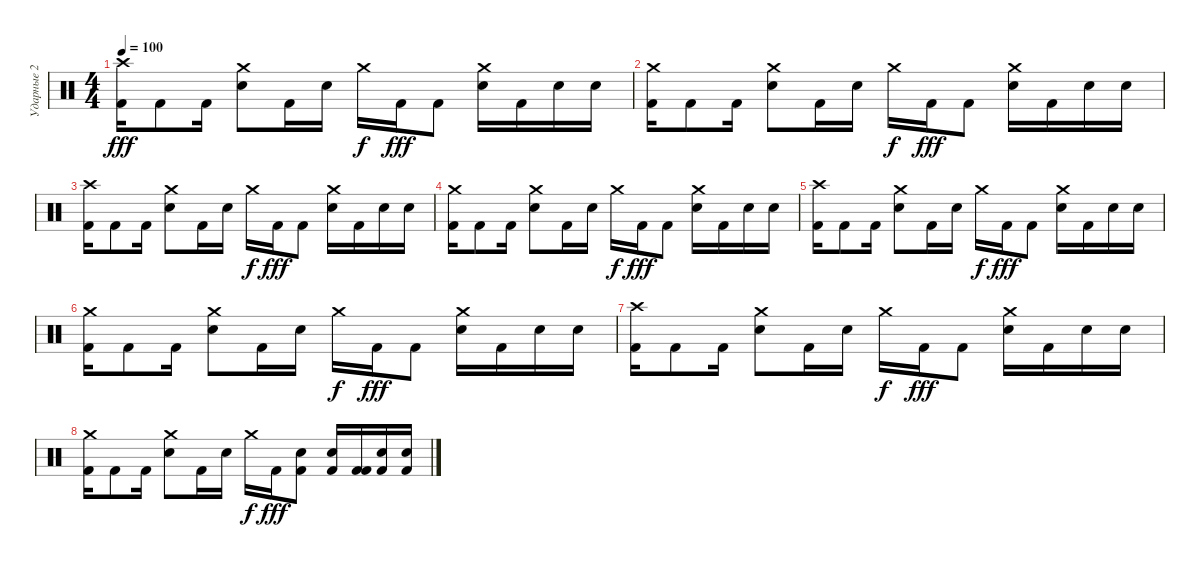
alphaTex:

\track ("Ударные 2" "Ударные 2") {instrument percussion}
\staff {score}
\articulation defaults
\ts (4 4)
\tempo 100
\clef neutral
\ks c
("Kick (hit) 2" "Crash high (hit)").16{dy fff} "Kick (hit) 2".8 "Kick (hit) 2".16 ("Snare (hit) 2" "Crash medium (hit)").8 "Kick (hit) 2".16 "Snare (hit) 2".16 "Crash medium (hit)".16{dy f} "Kick (hit) 2".16{dy fff} "Kick (hit) 2".8 ("Snare (hit) 2" "Crash medium (hit)").16 "Kick (hit) 2".16 "Snare (hit) 2".16 "Snare (hit) 2".16 |
("Kick (hit) 2" "Crash medium (hit)").16 "Kick (hit) 2".8 "Kick (hit) 2".16 ("Snare (hit) 2" "Crash medium (hit)").8 "Kick (hit) 2".16 "Snare (hit) 2".16 "Crash medium (hit)".16{dy f} "Kick (hit) 2".16{dy fff} "Kick (hit) 2".8 ("Snare (hit) 2" "Crash medium (hit)").16 "Kick (hit) 2".16 "Snare (hit) 2".16 "Snare (hit) 2".16 |
("Kick (hit) 2" "Crash high (hit)").16 "Kick (hit) 2".8 "Kick (hit) 2".16 ("Snare (hit) 2" "Crash medium (hit)").8 "Kick (hit) 2".16 "Snare (hit) 2".16 "Crash medium (hit)".16{dy f} "Kick (hit) 2".16{dy fff} "Kick (hit) 2".8 ("Snare (hit) 2" "Crash medium (hit)").16 "Kick (hit) 2".16 "Snare (hit) 2".16 "Snare (hit) 2".16 |
("Kick (hit) 2" "Crash medium (hit)").16 "Kick (hit) 2".8 "Kick (hit) 2".16 ("Snare (hit) 2" "Crash medium (hit)").8 "Kick (hit) 2".16 "Snare (hit) 2".16 "Crash medium (hit)".16{dy f} "Kick (hit) 2".16{dy fff} "Kick (hit) 2".8 ("Snare (hit) 2" "Crash medium (hit)").16 "Kick (hit) 2".16 "Snare (hit) 2".16 "Snare (hit) 2".16 |
("Kick (hit) 2" "Crash high (hit)").16 "Kick (hit) 2".8 "Kick (hit) 2".16 ("Snare (hit) 2" "Crash medium (hit)").8 "Kick (hit) 2".16 "Snare (hit) 2".16 "Crash medium (hit)".16{dy f} "Kick (hit) 2".16{dy fff} "Kick (hit) 2".8 ("Snare (hit) 2" "Crash medium (hit)").16 "Kick (hit) 2".16 "Snare (hit) 2".16 "Snare (hit) 2".16 |
("Kick (hit) 2" "Crash medium (hit)").16 "Kick (hit) 2".8 "Kick (hit) 2".16 ("Snare (hit) 2" "Crash medium (hit)").8 "Kick (hit) 2".16 "Snare (hit) 2".16 "Crash medium (hit)".16{dy f} "Kick (hit) 2".16{dy fff} "Kick (hit) 2".8 ("Snare (hit) 2" "Crash medium (hit)").16 "Kick (hit) 2".16 "Snare (hit) 2".16 "Snare (hit) 2".16 |
("Kick (hit) 2" "Crash high (hit)").16 "Kick (hit) 2".8 "Kick (hit) 2".16 ("Snare (hit) 2" "Crash medium (hit)").8 "Kick (hit) 2".16 "Snare (hit) 2".16 "Crash medium (hit)".16{dy f} "Kick (hit) 2".16{dy fff} "Kick (hit) 2".8 ("Snare (hit) 2" "Crash medium (hit)").16 "Kick (hit) 2".16 "Snare (hit) 2".16 "Snare (hit) 2".16 |
("Kick (hit) 2" "Crash medium (hit)").16 "Kick (hit) 2".8 "Kick (hit) 2".16 ("Snare (hit) 2" "Crash medium (hit)").8 "Kick (hit) 2".16 "Snare (hit) 2".16 "Crash medium (hit)".16{dy f} "Kick (hit) 2".16{dy fff} ("Kick (hit) 2" "Snare (hit) 2").8 ("Snare (hit) 2" "Kick (hit) 2").16 ("Kick (hit) 2" "Kick (hit) 2").16 ("Snare (hit) 2" "Kick (hit) 2").16 ("Snare (hit) 2" "Kick (hit) 2").16
